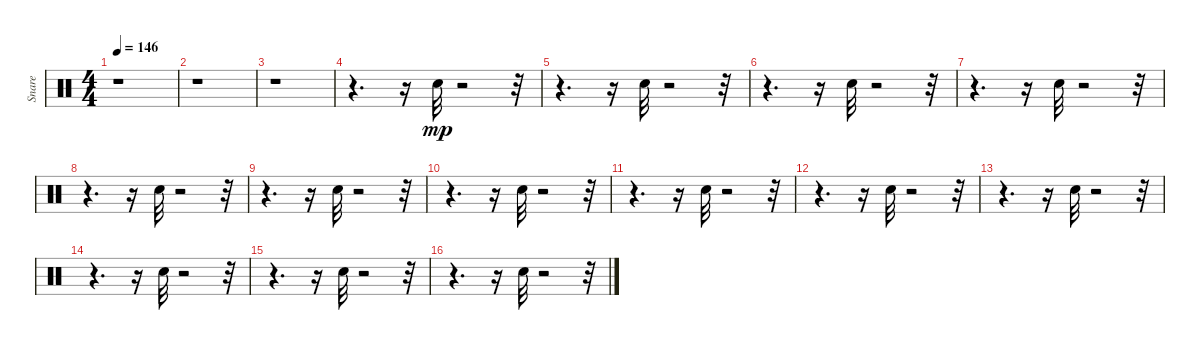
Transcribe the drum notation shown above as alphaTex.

\track ("Snare" "Snare") {instrument percussion}
\staff {score}
\articulation defaults
\ts (4 4)
\tempo 146
\clef neutral
\ks c
r.1{dy mp} |
r.1 |
r.1 |
r.4{d} r.16 "Electric Snare (hit)".32 r.2 r.32 |
r.4{d} r.16 "Electric Snare (hit)".32 r.2 r.32 |
r.4{d} r.16 "Electric Snare (hit)".32 r.2 r.32 |
r.4{d} r.16 "Electric Snare (hit)".32 r.2 r.32 |
r.4{d} r.16 "Electric Snare (hit)".32 r.2 r.32 |
r.4{d} r.16 "Electric Snare (hit)".32 r.2 r.32 |
r.4{d} r.16 "Electric Snare (hit)".32 r.2 r.32 |
r.4{d} r.16 "Electric Snare (hit)".32 r.2 r.32 |
r.4{d} r.16 "Electric Snare (hit)".32 r.2 r.32 |
r.4{d} r.16 "Electric Snare (hit)".32 r.2 r.32 |
r.4{d} r.16 "Electric Snare (hit)".32 r.2 r.32 |
r.4{d} r.16 "Electric Snare (hit)".32 r.2 r.32 |
r.4{d} r.16 "Electric Snare (hit)".32 r.2 r.32
